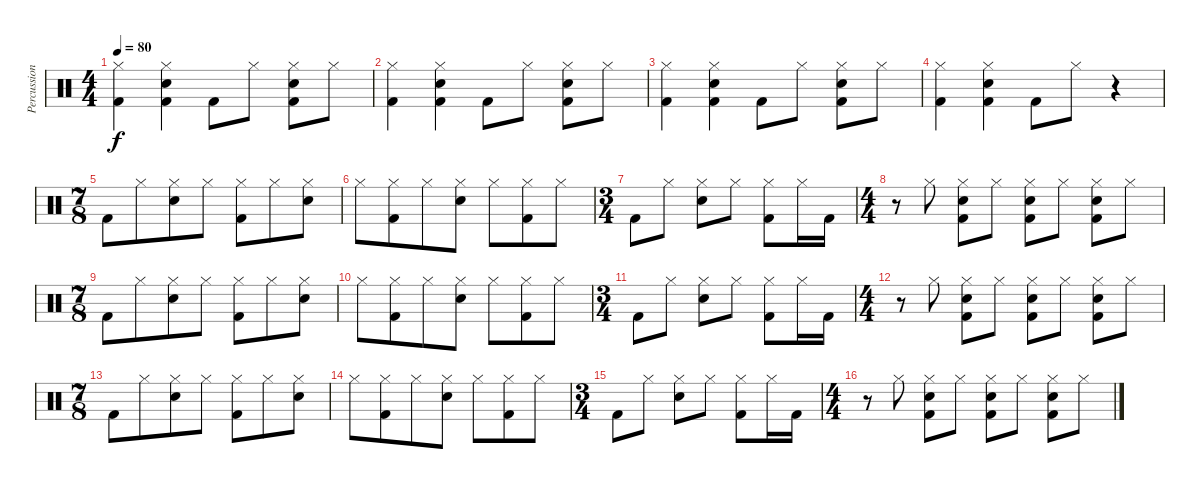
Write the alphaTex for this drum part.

\track ("Percussion" "Percussion") {instrument percussion}
\staff {score}
\articulation defaults
\ts (4 4)
\tempo 80
\clef neutral
\ks c
("Hi-Hat (closed)" "Kick (hit) 2").4{dy f} ("Hi-Hat (closed)" "Snare (hit) 2" "Kick (hit) 2").4 "Kick (hit) 2".8 "Hi-Hat (closed)".8 ("Hi-Hat (closed)" "Snare (hit) 2" "Kick (hit) 2").8 "Hi-Hat (closed)".8 |
("Hi-Hat (closed)" "Kick (hit) 2").4 ("Hi-Hat (closed)" "Snare (hit) 2" "Kick (hit) 2").4 "Kick (hit) 2".8 "Hi-Hat (closed)".8 ("Hi-Hat (closed)" "Snare (hit) 2" "Kick (hit) 2").8 "Hi-Hat (closed)".8 |
("Hi-Hat (closed)" "Kick (hit) 2").4 ("Hi-Hat (closed)" "Snare (hit) 2" "Kick (hit) 2").4 "Kick (hit) 2".8 "Hi-Hat (closed)".8 ("Hi-Hat (closed)" "Snare (hit) 2" "Kick (hit) 2").8 "Hi-Hat (closed)".8 |
("Hi-Hat (closed)" "Kick (hit) 2").4 ("Hi-Hat (closed)" "Snare (hit) 2" "Kick (hit) 2").4 "Kick (hit) 2".8 "Hi-Hat (closed)".8 r.4 |
\ts (7 8)
"Kick (hit) 2".8 "Hi-Hat (closed)".8 ("Hi-Hat (closed)" "Snare (hit) 2").8 "Hi-Hat (closed)".8 ("Hi-Hat (closed)" "Kick (hit) 2").8 "Hi-Hat (closed)".8 ("Hi-Hat (closed)" "Snare (hit) 2").8 |
"Hi-Hat (closed)".8 ("Hi-Hat (closed)" "Kick (hit) 2").8 "Hi-Hat (closed)".8 ("Hi-Hat (closed)" "Snare (hit) 2").8 "Hi-Hat (closed)".8 ("Hi-Hat (closed)" "Kick (hit) 2").8 "Hi-Hat (closed)".8 |
\ts (3 4)
"Kick (hit) 2".8 "Hi-Hat (closed)".8 ("Hi-Hat (closed)" "Snare (hit) 2").8 "Hi-Hat (closed)".8 ("Hi-Hat (closed)" "Kick (hit) 2").8 "Hi-Hat (closed)".16 "Kick (hit) 2".16 |
\ts (4 4)
r.8 "Hi-Hat (closed)".8 ("Hi-Hat (closed)" "Snare (hit) 2" "Kick (hit) 2").8 "Hi-Hat (closed)".8 ("Hi-Hat (closed)" "Snare (hit) 2" "Kick (hit) 2").8 "Hi-Hat (closed)".8 ("Hi-Hat (closed)" "Snare (hit) 2" "Kick (hit) 2").8 "Hi-Hat (closed)".8 |
\ts (7 8)
"Kick (hit) 2".8 "Hi-Hat (closed)".8 ("Hi-Hat (closed)" "Snare (hit) 2").8 "Hi-Hat (closed)".8 ("Hi-Hat (closed)" "Kick (hit) 2").8 "Hi-Hat (closed)".8 ("Hi-Hat (closed)" "Snare (hit) 2").8 |
"Hi-Hat (closed)".8 ("Hi-Hat (closed)" "Kick (hit) 2").8 "Hi-Hat (closed)".8 ("Hi-Hat (closed)" "Snare (hit) 2").8 "Hi-Hat (closed)".8 ("Hi-Hat (closed)" "Kick (hit) 2").8 "Hi-Hat (closed)".8 |
\ts (3 4)
"Kick (hit) 2".8 "Hi-Hat (closed)".8 ("Hi-Hat (closed)" "Snare (hit) 2").8 "Hi-Hat (closed)".8 ("Hi-Hat (closed)" "Kick (hit) 2").8 "Hi-Hat (closed)".16 "Kick (hit) 2".16 |
\ts (4 4)
r.8 "Hi-Hat (closed)".8 ("Hi-Hat (closed)" "Snare (hit) 2" "Kick (hit) 2").8 "Hi-Hat (closed)".8 ("Hi-Hat (closed)" "Snare (hit) 2" "Kick (hit) 2").8 "Hi-Hat (closed)".8 ("Hi-Hat (closed)" "Snare (hit) 2" "Kick (hit) 2").8 "Hi-Hat (closed)".8 |
\ts (7 8)
"Kick (hit) 2".8 "Hi-Hat (closed)".8 ("Hi-Hat (closed)" "Snare (hit) 2").8 "Hi-Hat (closed)".8 ("Hi-Hat (closed)" "Kick (hit) 2").8 "Hi-Hat (closed)".8 ("Hi-Hat (closed)" "Snare (hit) 2").8 |
"Hi-Hat (closed)".8 ("Hi-Hat (closed)" "Kick (hit) 2").8 "Hi-Hat (closed)".8 ("Hi-Hat (closed)" "Snare (hit) 2").8 "Hi-Hat (closed)".8 ("Hi-Hat (closed)" "Kick (hit) 2").8 "Hi-Hat (closed)".8 |
\ts (3 4)
"Kick (hit) 2".8 "Hi-Hat (closed)".8 ("Hi-Hat (closed)" "Snare (hit) 2").8 "Hi-Hat (closed)".8 ("Hi-Hat (closed)" "Kick (hit) 2").8 "Hi-Hat (closed)".16 "Kick (hit) 2".16 |
\ts (4 4)
r.8 "Hi-Hat (closed)".8 ("Hi-Hat (closed)" "Snare (hit) 2" "Kick (hit) 2").8 "Hi-Hat (closed)".8 ("Hi-Hat (closed)" "Snare (hit) 2" "Kick (hit) 2").8 "Hi-Hat (closed)".8 ("Hi-Hat (closed)" "Snare (hit) 2" "Kick (hit) 2").8 "Hi-Hat (closed)".8
